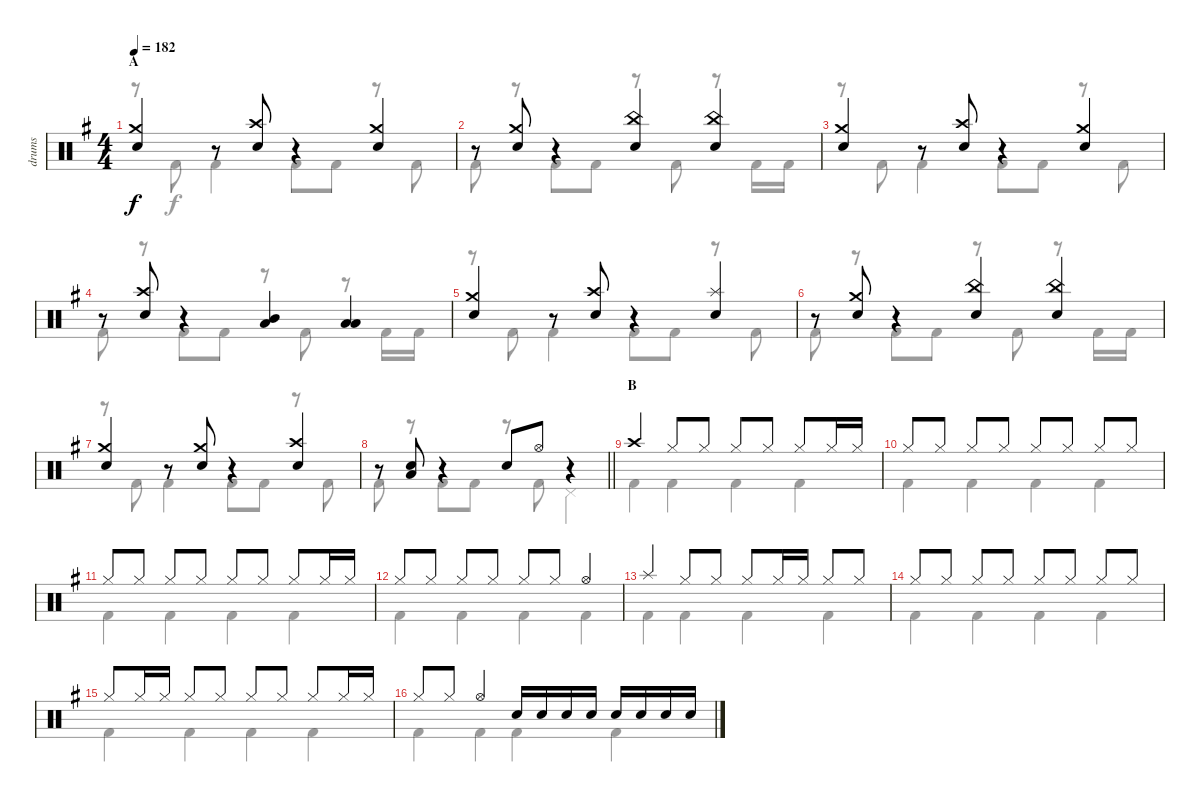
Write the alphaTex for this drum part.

\track ("drums" "drums") {instrument percussion}
\staff {score}
\articulation defaults
\voice
\ts (4 4)
\section ("" "A")
\tempo 182
\clef neutral
\ks g
("Crash medium (hit)" "Snare (hit) 2").4{dy f} r.8 ("Crash high (hit)" "Snare (hit) 2").8 r.4 ("Crash medium (hit)" "Snare (hit) 2").4 |
r.8 ("Crash medium (hit)" "Snare (hit) 2").8 r.4 ("China (hit)" "Snare (hit) 2").4 ("China (hit)" "Snare (hit) 2").4 |
("Crash medium (hit)" "Snare (hit) 2").4 r.8 ("Crash high (hit)" "Snare (hit) 2").8 r.4 ("Crash medium (hit)" "Snare (hit) 2").4 |
r.8 ("Crash high (hit)" "Snare (hit) 2").8 r.4 ("Mid Tom (hit)" "Low Tom (hit)").4 ("Low Tom (hit)" "Low Floor Tom (hit)").4 |
("Crash medium (hit)" "Snare (hit) 2").4 r.8 ("Crash high (hit)" "Snare (hit) 2").8 r.4 ("Splash (hit)" "Snare (hit) 2").4 |
r.8 ("Crash medium (hit)" "Snare (hit) 2").8 r.4 ("China (hit)" "Snare (hit) 2").4 ("China (hit)" "Snare (hit) 2").4 |
("Crash medium (hit)" "Snare (hit) 2").4 r.8 ("Crash medium (hit)" "Snare (hit) 2").8 r.4 ("Crash high (hit)" "Snare (hit) 2").4 |
\barLineRight lightlight
r.8 ("Low Tom (hit)" "Snare (hit) 2").8 r.4 "Snare (hit) 2".8 "Hi-Hat (open)".8 r.4 |
\section ("" "B")
"Crash high (hit)".4 "Hi-Hat (closed)".8 "Hi-Hat (closed)".8 "Hi-Hat (closed)".8 "Hi-Hat (closed)".8 "Hi-Hat (closed)".8 "Hi-Hat (closed)".16 "Hi-Hat (closed)".16 |
"Hi-Hat (closed)".8 "Hi-Hat (closed)".8 "Hi-Hat (closed)".8 "Hi-Hat (closed)".8 "Hi-Hat (closed)".8 "Hi-Hat (closed)".8 "Hi-Hat (closed)".8 "Hi-Hat (closed)".8 |
"Hi-Hat (closed)".8 "Hi-Hat (closed)".8 "Hi-Hat (closed)".8 "Hi-Hat (closed)".8 "Hi-Hat (closed)".8 "Hi-Hat (closed)".8 "Hi-Hat (closed)".8 "Hi-Hat (closed)".16 "Hi-Hat (closed)".16 |
"Hi-Hat (closed)".8 "Hi-Hat (closed)".8 "Hi-Hat (closed)".8 "Hi-Hat (closed)".8 "Hi-Hat (closed)".8 "Hi-Hat (closed)".8 "Hi-Hat (open)".4 |
"Splash (hit)".4 "Hi-Hat (closed)".8 "Hi-Hat (closed)".8 "Hi-Hat (closed)".8 "Hi-Hat (closed)".16 "Hi-Hat (closed)".16 "Hi-Hat (closed)".8 "Hi-Hat (closed)".8 |
"Hi-Hat (closed)".8 "Hi-Hat (closed)".8 "Hi-Hat (closed)".8 "Hi-Hat (closed)".8 "Hi-Hat (closed)".8 "Hi-Hat (closed)".8 "Hi-Hat (closed)".8 "Hi-Hat (closed)".8 |
"Hi-Hat (closed)".8 "Hi-Hat (closed)".16 "Hi-Hat (closed)".16 "Hi-Hat (closed)".8 "Hi-Hat (closed)".8 "Hi-Hat (closed)".8 "Hi-Hat (closed)".8 "Hi-Hat (closed)".8 "Hi-Hat (closed)".16 "Hi-Hat (closed)".16 |
"Hi-Hat (closed)".8 "Hi-Hat (closed)".8 "Hi-Hat (open)".4 "Snare (hit) 2".16 "Snare (hit) 2".16 "Snare (hit) 2".16 "Snare (hit) 2".16 "Snare (hit) 2".16 "Snare (hit) 2".16 "Snare (hit) 2".16 "Snare (hit) 2".16
\voice
\clef neutral
\ottava regular
\simile none
\ks g
r.8{dy f} "Kick (hit) 2".8 "Kick (hit) 2".4 "Kick (hit) 2".8 "Kick (hit) 2".8 r.8 "Kick (hit) 2".8 |
"Kick (hit) 2".8 r.8 "Kick (hit) 2".8 "Kick (hit) 2".8 r.8 "Kick (hit) 2".8 r.8 "Kick (hit) 2".16 "Kick (hit) 2".16 |
r.8 "Kick (hit) 2".8 "Kick (hit) 2".4 "Kick (hit) 2".8 "Kick (hit) 2".8 r.8 "Kick (hit) 2".8 |
"Kick (hit) 2".8 r.8 "Kick (hit) 2".8 "Kick (hit) 2".8 r.8 "Kick (hit) 2".8 r.8 "Kick (hit) 2".16 "Kick (hit) 2".16 |
r.8 "Kick (hit) 2".8 "Kick (hit) 2".4 "Kick (hit) 2".8 "Kick (hit) 2".8 r.8 "Kick (hit) 2".8 |
"Kick (hit) 2".8 r.8 "Kick (hit) 2".8 "Kick (hit) 2".8 r.8 "Kick (hit) 2".8 r.8 "Kick (hit) 2".16 "Kick (hit) 2".16 |
r.8 "Kick (hit) 2".8 "Kick (hit) 2".4 "Kick (hit) 2".8 "Kick (hit) 2".8 r.8 "Kick (hit) 2".8 |
\barLineRight lightlight "Kick (hit) 2".8
r.8 "Kick (hit) 2".8 "Kick (hit) 2".8 r.8 "Kick (hit) 2".8 "Pedal Hi-Hat (hit)".4 |
"Kick (hit) 2".4 "Kick (hit) 2".4 "Kick (hit) 2".4 "Kick (hit) 2".4 |
"Kick (hit) 2".4 "Kick (hit) 2".4 "Kick (hit) 2".4 "Kick (hit) 2".4 |
"Kick (hit) 2".4 "Kick (hit) 2".4 "Kick (hit) 2".4 "Kick (hit) 2".4 |
"Kick (hit) 2".4 "Kick (hit) 2".4 "Kick (hit) 2".4 "Kick (hit) 2".4 |
"Kick (hit) 2".4 "Kick (hit) 2".4 "Kick (hit) 2".4 "Kick (hit) 2".4 |
"Kick (hit) 2".4 "Kick (hit) 2".4 "Kick (hit) 2".4 "Kick (hit) 2".4 |
"Kick (hit) 2".4 "Kick (hit) 2".4 "Kick (hit) 2".4 "Kick (hit) 2".4 |
"Kick (hit) 2".4 "Kick (hit) 2".4 "Kick (hit) 2".4 "Kick (hit) 2".4
